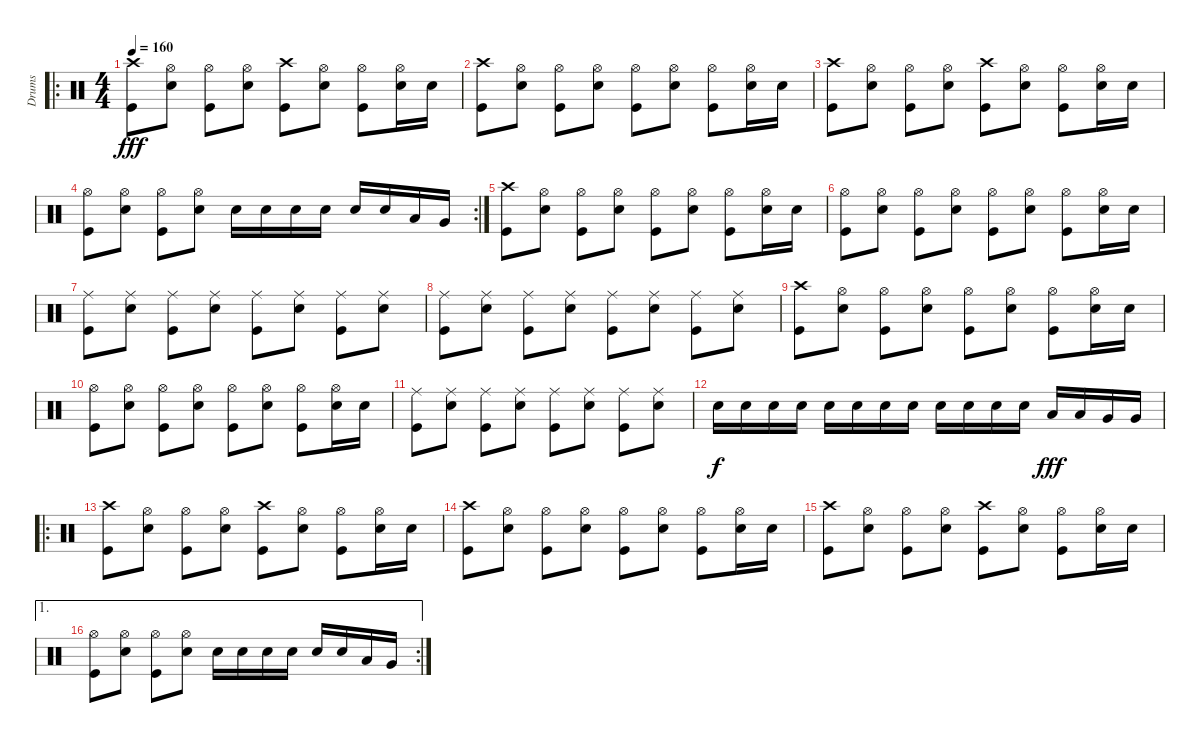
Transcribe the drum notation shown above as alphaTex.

\track ("Drums" "Drums") {instrument percussion}
\staff {score}
\articulation defaults
\ro
\ts (4 4)
\tempo 160
\clef neutral
\ks c
("Crash high (hit)" "Kick (hit)").8{dy fff} ("Hi-Hat (open)" "Electric Snare (hit)").8 ("Hi-Hat (open)" "Kick (hit)").8 ("Hi-Hat (open)" "Electric Snare (hit)").8 ("Crash high (hit)" "Kick (hit)").8 ("Hi-Hat (open)" "Electric Snare (hit)").8 ("Hi-Hat (open)" "Kick (hit)").8 ("Hi-Hat (open)" "Electric Snare (hit)").16 "Electric Snare (hit)".16 |
("Crash high (hit)" "Kick (hit)").8 ("Hi-Hat (open)" "Electric Snare (hit)").8 ("Hi-Hat (open)" "Kick (hit)").8 ("Hi-Hat (open)" "Electric Snare (hit)").8 ("Hi-Hat (open)" "Kick (hit)").8 ("Hi-Hat (open)" "Electric Snare (hit)").8 ("Hi-Hat (open)" "Kick (hit)").8 ("Hi-Hat (open)" "Electric Snare (hit)").16 "Electric Snare (hit)".16 |
("Crash high (hit)" "Kick (hit)").8 ("Hi-Hat (open)" "Electric Snare (hit)").8 ("Hi-Hat (open)" "Kick (hit)").8 ("Hi-Hat (open)" "Electric Snare (hit)").8 ("Crash high (hit)" "Kick (hit)").8 ("Hi-Hat (open)" "Electric Snare (hit)").8 ("Hi-Hat (open)" "Kick (hit)").8 ("Hi-Hat (open)" "Electric Snare (hit)").16 "Electric Snare (hit)".16 |
\rc 2
("Hi-Hat (open)" "Kick (hit)").8 ("Hi-Hat (open)" "Electric Snare (hit)").8 ("Hi-Hat (open)" "Kick (hit)").8 ("Hi-Hat (open)" "Electric Snare (hit)").8 "Electric Snare (hit)".16 "Electric Snare (hit)".16 "Electric Snare (hit)".16 "Electric Snare (hit)".16 "Electric Snare (hit)".16 "Electric Snare (hit)".16 "Low Tom (hit)".16 "Very Low Tom (hit)".16 |
("Crash high (hit)" "Kick (hit)").8 ("Hi-Hat (open)" "Electric Snare (hit)").8 ("Hi-Hat (open)" "Kick (hit)").8 ("Hi-Hat (open)" "Electric Snare (hit)").8 ("Hi-Hat (open)" "Kick (hit)").8 ("Hi-Hat (open)" "Electric Snare (hit)").8 ("Hi-Hat (open)" "Kick (hit)").8 ("Hi-Hat (open)" "Electric Snare (hit)").16 "Electric Snare (hit)".16 |
("Hi-Hat (open)" "Kick (hit)").8 ("Hi-Hat (open)" "Electric Snare (hit)").8 ("Hi-Hat (open)" "Kick (hit)").8 ("Hi-Hat (open)" "Electric Snare (hit)").8 ("Hi-Hat (open)" "Kick (hit)").8 ("Hi-Hat (open)" "Electric Snare (hit)").8 ("Hi-Hat (open)" "Kick (hit)").8 ("Hi-Hat (open)" "Electric Snare (hit)").16 "Electric Snare (hit)".16 |
("Ride (middle)" "Kick (hit)").8 ("Ride (middle)" "Electric Snare (hit)").8 ("Ride (middle)" "Kick (hit)").8 ("Ride (middle)" "Electric Snare (hit)").8 ("Ride (middle)" "Kick (hit)").8 ("Ride (middle)" "Electric Snare (hit)").8 ("Ride (middle)" "Kick (hit)").8 ("Ride (middle)" "Electric Snare (hit)").8 |
("Ride (middle)" "Kick (hit)").8 ("Ride (middle)" "Electric Snare (hit)").8 ("Ride (middle)" "Kick (hit)").8 ("Ride (middle)" "Electric Snare (hit)").8 ("Ride (middle)" "Kick (hit)").8 ("Ride (middle)" "Electric Snare (hit)").8 ("Ride (middle)" "Kick (hit)").8 ("Ride (middle)" "Electric Snare (hit)").8 |
("Crash high (hit)" "Kick (hit)").8 ("Hi-Hat (open)" "Electric Snare (hit)").8 ("Hi-Hat (open)" "Kick (hit)").8 ("Hi-Hat (open)" "Electric Snare (hit)").8 ("Hi-Hat (open)" "Kick (hit)").8 ("Hi-Hat (open)" "Electric Snare (hit)").8 ("Hi-Hat (open)" "Kick (hit)").8 ("Hi-Hat (open)" "Electric Snare (hit)").16 "Electric Snare (hit)".16 |
("Hi-Hat (open)" "Kick (hit)").8 ("Hi-Hat (open)" "Electric Snare (hit)").8 ("Hi-Hat (open)" "Kick (hit)").8 ("Hi-Hat (open)" "Electric Snare (hit)").8 ("Hi-Hat (open)" "Kick (hit)").8 ("Hi-Hat (open)" "Electric Snare (hit)").8 ("Hi-Hat (open)" "Kick (hit)").8 ("Hi-Hat (open)" "Electric Snare (hit)").16 "Electric Snare (hit)".16 |
("Ride (middle)" "Kick (hit)").8 ("Ride (middle)" "Electric Snare (hit)").8 ("Ride (middle)" "Kick (hit)").8 ("Ride (middle)" "Electric Snare (hit)").8 ("Ride (middle)" "Kick (hit)").8 ("Ride (middle)" "Electric Snare (hit)").8 ("Ride (middle)" "Kick (hit)").8 ("Ride (middle)" "Electric Snare (hit)").8 |
"Electric Snare (hit)".16{dy f} "Electric Snare (hit)".16 "Electric Snare (hit)".16 "Electric Snare (hit)".16 "Electric Snare (hit)".16 "Electric Snare (hit)".16 "Electric Snare (hit)".16 "Electric Snare (hit)".16 "Electric Snare (hit)".16 "Electric Snare (hit)".16 "Electric Snare (hit)".16 "Electric Snare (hit)".16 "Low Tom (hit)".16{dy fff} "Low Tom (hit)".16 "Very Low Tom (hit)".16 "Very Low Tom (hit)".16 |
\ro
("Crash high (hit)" "Kick (hit)").8 ("Hi-Hat (open)" "Electric Snare (hit)").8 ("Hi-Hat (open)" "Kick (hit)").8 ("Hi-Hat (open)" "Electric Snare (hit)").8 ("Crash high (hit)" "Kick (hit)").8 ("Hi-Hat (open)" "Electric Snare (hit)").8 ("Hi-Hat (open)" "Kick (hit)").8 ("Hi-Hat (open)" "Electric Snare (hit)").16 "Electric Snare (hit)".16 |
("Crash high (hit)" "Kick (hit)").8 ("Hi-Hat (open)" "Electric Snare (hit)").8 ("Hi-Hat (open)" "Kick (hit)").8 ("Hi-Hat (open)" "Electric Snare (hit)").8 ("Hi-Hat (open)" "Kick (hit)").8 ("Hi-Hat (open)" "Electric Snare (hit)").8 ("Hi-Hat (open)" "Kick (hit)").8 ("Hi-Hat (open)" "Electric Snare (hit)").16 "Electric Snare (hit)".16 |
("Crash high (hit)" "Kick (hit)").8 ("Hi-Hat (open)" "Electric Snare (hit)").8 ("Hi-Hat (open)" "Kick (hit)").8 ("Hi-Hat (open)" "Electric Snare (hit)").8 ("Crash high (hit)" "Kick (hit)").8 ("Hi-Hat (open)" "Electric Snare (hit)").8 ("Hi-Hat (open)" "Kick (hit)").8 ("Hi-Hat (open)" "Electric Snare (hit)").16 "Electric Snare (hit)".16 |
\ae 1
\rc 2
("Hi-Hat (open)" "Kick (hit)").8 ("Hi-Hat (open)" "Electric Snare (hit)").8 ("Hi-Hat (open)" "Kick (hit)").8 ("Hi-Hat (open)" "Electric Snare (hit)").8 "Electric Snare (hit)".16 "Electric Snare (hit)".16 "Electric Snare (hit)".16 "Electric Snare (hit)".16 "Electric Snare (hit)".16 "Electric Snare (hit)".16 "Low Tom (hit)".16 "Very Low Tom (hit)".16
